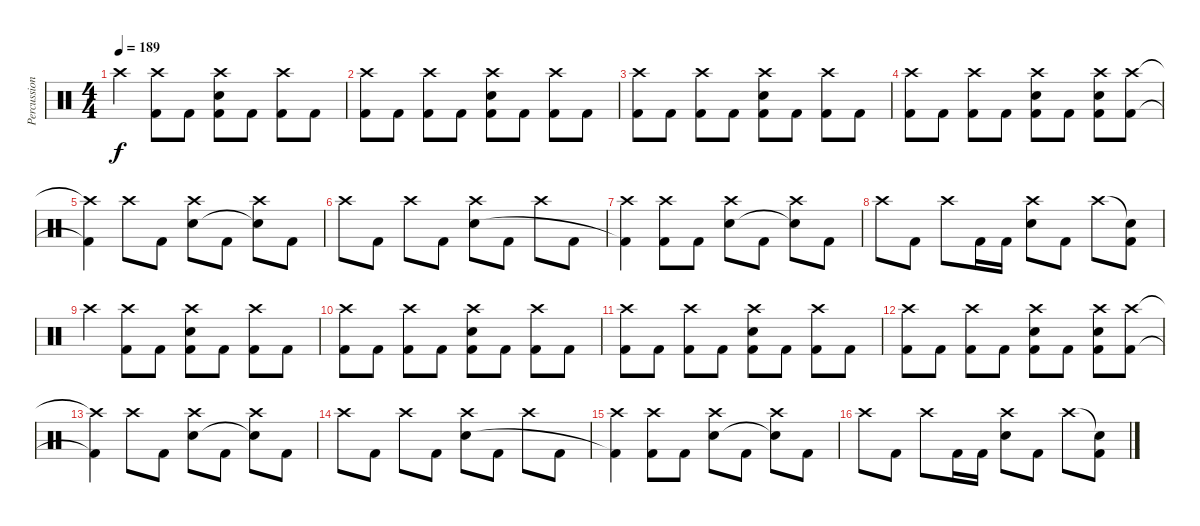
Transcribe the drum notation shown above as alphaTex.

\track ("Percussion" "Percussion") {instrument percussion}
\staff {score}
\articulation defaults
\ts (4 4)
\tempo 189
\clef neutral
\ks c "Crash high (hit)".4{dy f}
("Crash high (hit)" "Kick (hit) 2").8 "Kick (hit) 2".8 ("Crash high (hit)" "Electric Snare (hit)" "Kick (hit) 2").8 "Kick (hit) 2".8 ("Crash high (hit)" "Kick (hit) 2").8 "Kick (hit) 2".8 |
("Crash high (hit)" "Kick (hit) 2").8 "Kick (hit) 2".8 ("Crash high (hit)" "Kick (hit) 2").8 "Kick (hit) 2".8 ("Crash high (hit)" "Electric Snare (hit)" "Kick (hit) 2").8 "Kick (hit) 2".8 ("Crash high (hit)" "Kick (hit) 2").8 "Kick (hit) 2".8 |
("Crash high (hit)" "Kick (hit) 2").8 "Kick (hit) 2".8 ("Crash high (hit)" "Kick (hit) 2").8 "Kick (hit) 2".8 ("Crash high (hit)" "Electric Snare (hit)" "Kick (hit) 2").8 "Kick (hit) 2".8 ("Crash high (hit)" "Kick (hit) 2").8 "Kick (hit) 2".8 |
("Crash high (hit)" "Kick (hit) 2").8 "Kick (hit) 2".8 ("Crash high (hit)" "Kick (hit) 2").8 "Kick (hit) 2".8 ("Crash high (hit)" "Electric Snare (hit)" "Kick (hit) 2").8 "Kick (hit) 2".8 ("Crash high (hit)" "Electric Snare (hit)" "Kick (hit) 2").8 ("Crash high (hit)" "Kick (hit) 2").8 |
("Crash high (hit)"{t} "Kick (hit) 2"{t}).4 "Crash high (hit)".8 "Kick (hit) 2".8 ("Crash high (hit)" "Electric Snare (hit)").8 "Kick (hit) 2".8 ("Crash high (hit)" "Snare (hit)"{t}).8 "Kick (hit) 2".8 |
"Crash high (hit)".8 "Kick (hit) 2".8 "Crash high (hit)".8 "Kick (hit) 2".8 ("Crash high (hit)" "Electric Snare (hit)").8 "Kick (hit) 2".8 "Crash high (hit)".8 "Kick (hit) 2".8 |
("Crash high (hit)" "Kick (hit) 2"{t}).4 ("Crash high (hit)" "Kick (hit) 2").8 "Kick (hit) 2".8 ("Crash high (hit)" "Electric Snare (hit)").8 "Kick (hit) 2".8 ("Crash high (hit)" "Snare (hit)"{t}).8 "Kick (hit) 2".8 |
"Crash high (hit)".8 "Kick (hit) 2".8 "Crash high (hit)".8 "Kick (hit) 2".16 "Kick (hit) 2".16 ("Crash high (hit)" "Electric Snare (hit)").8 "Kick (hit) 2".8 "Crash high (hit)".8 ("Snare (hit)"{t} "Kick (hit) 2").8 |
"Crash high (hit)".4 ("Crash high (hit)" "Kick (hit) 2").8 "Kick (hit) 2".8 ("Crash high (hit)" "Electric Snare (hit)" "Kick (hit) 2").8 "Kick (hit) 2".8 ("Crash high (hit)" "Kick (hit) 2").8 "Kick (hit) 2".8 |
("Crash high (hit)" "Kick (hit) 2").8 "Kick (hit) 2".8 ("Crash high (hit)" "Kick (hit) 2").8 "Kick (hit) 2".8 ("Crash high (hit)" "Electric Snare (hit)" "Kick (hit) 2").8 "Kick (hit) 2".8 ("Crash high (hit)" "Kick (hit) 2").8 "Kick (hit) 2".8 |
("Crash high (hit)" "Kick (hit) 2").8 "Kick (hit) 2".8 ("Crash high (hit)" "Kick (hit) 2").8 "Kick (hit) 2".8 ("Crash high (hit)" "Electric Snare (hit)" "Kick (hit) 2").8 "Kick (hit) 2".8 ("Crash high (hit)" "Kick (hit) 2").8 "Kick (hit) 2".8 |
("Crash high (hit)" "Kick (hit) 2").8 "Kick (hit) 2".8 ("Crash high (hit)" "Kick (hit) 2").8 "Kick (hit) 2".8 ("Crash high (hit)" "Electric Snare (hit)" "Kick (hit) 2").8 "Kick (hit) 2".8 ("Crash high (hit)" "Electric Snare (hit)" "Kick (hit) 2").8 ("Crash high (hit)" "Kick (hit) 2").8 |
("Crash high (hit)"{t} "Kick (hit) 2"{t}).4 "Crash high (hit)".8 "Kick (hit) 2".8 ("Crash high (hit)" "Electric Snare (hit)").8 "Kick (hit) 2".8 ("Crash high (hit)" "Snare (hit)"{t}).8 "Kick (hit) 2".8 |
"Crash high (hit)".8 "Kick (hit) 2".8 "Crash high (hit)".8 "Kick (hit) 2".8 ("Crash high (hit)" "Electric Snare (hit)").8 "Kick (hit) 2".8 "Crash high (hit)".8 "Kick (hit) 2".8 |
("Crash high (hit)" "Kick (hit) 2"{t}).4 ("Crash high (hit)" "Kick (hit) 2").8 "Kick (hit) 2".8 ("Crash high (hit)" "Electric Snare (hit)").8 "Kick (hit) 2".8 ("Crash high (hit)" "Snare (hit)"{t}).8 "Kick (hit) 2".8 |
"Crash high (hit)".8 "Kick (hit) 2".8 "Crash high (hit)".8 "Kick (hit) 2".16 "Kick (hit) 2".16 ("Crash high (hit)" "Electric Snare (hit)").8 "Kick (hit) 2".8 "Crash high (hit)".8 ("Snare (hit)"{t} "Kick (hit) 2").8
